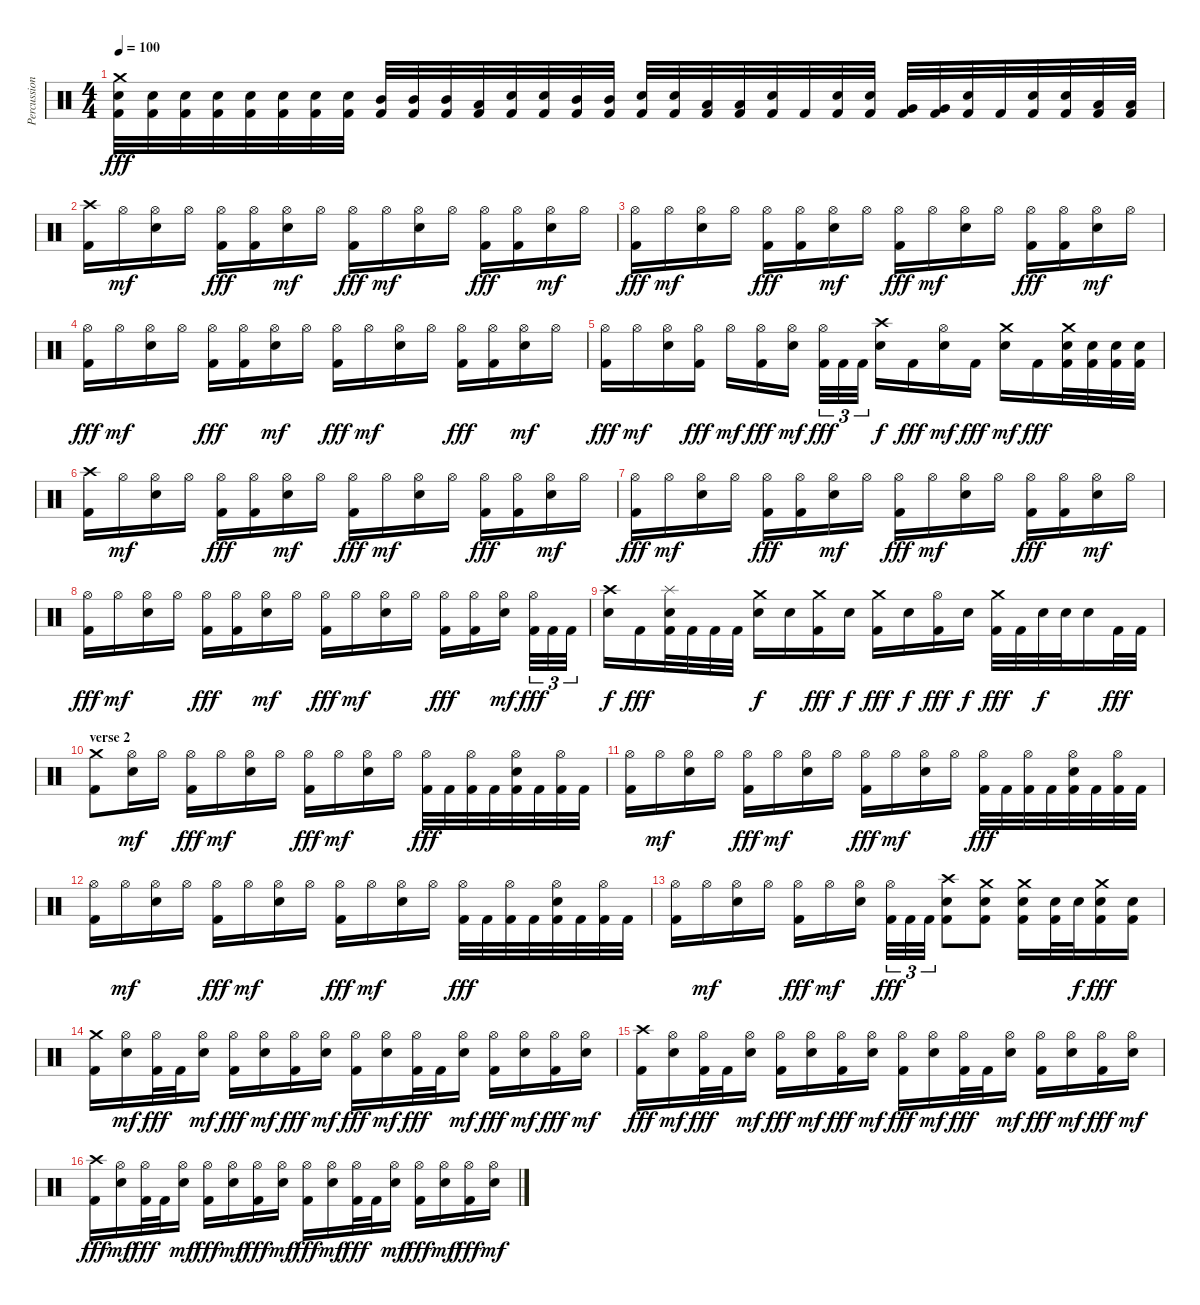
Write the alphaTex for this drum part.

\track ("Percussion" "Percussion") {instrument percussion}
\staff {score}
\articulation defaults
\ts (4 4)
\tempo 100
\clef neutral
\ks c
("Crash medium (hit)" "Snare (hit) 2" "Kick (hit) 2").32{dy fff} ("Snare (hit) 2" "Kick (hit) 2").32 ("Snare (hit) 2" "Kick (hit) 2").32 ("Snare (hit) 2" "Kick (hit) 2").32 ("Snare (hit) 2" "Kick (hit) 2").32 ("Snare (hit) 2" "Kick (hit) 2").32 ("Snare (hit) 2" "Kick (hit) 2").32 ("Snare (hit) 2" "Kick (hit) 2").32 ("Mid Tom (hit)" "Kick (hit) 2").32 ("Mid Tom (hit)" "Kick (hit) 2").32 ("Mid Tom (hit)" "Kick (hit) 2").32 ("Low Tom (hit)" "Kick (hit) 2").32 ("Snare (hit) 2" "Kick (hit) 2").32 ("Snare (hit) 2" "Kick (hit) 2").32 ("Mid Tom (hit)" "Kick (hit) 2").32 ("Mid Tom (hit)" "Kick (hit) 2").32 ("Snare (hit) 2" "Kick (hit) 2").32 ("Snare (hit) 2" "Kick (hit) 2").32 ("Low Tom (hit)" "Kick (hit) 2").32 ("Low Tom (hit)" "Kick (hit) 2").32 ("Snare (hit) 2" "Kick (hit) 2").32 "Kick (hit) 2".32 ("Snare (hit) 2" "Kick (hit) 2").32 ("Snare (hit) 2" "Kick (hit) 2").32 ("Very Low Tom (hit)" "Kick (hit) 2").32 ("Very Low Tom (hit)" "Kick (hit) 2").32 ("Snare (hit) 2" "Kick (hit) 2").32 "Kick (hit) 2".32 ("Snare (hit) 2" "Kick (hit) 2").32 ("Snare (hit) 2" "Kick (hit) 2").32 ("Low Floor Tom (hit)" "Kick (hit) 2").32 ("Low Floor Tom (hit)" "Kick (hit) 2").32 |
\section ("" "")
("Crash high (hit)" "Kick (hit) 2").16 "Hi-Hat (open)".16{dy mf} ("Hi-Hat (open)" "Snare (hit) 2").16 "Hi-Hat (open)".16 ("Hi-Hat (open)" "Kick (hit) 2").16{dy fff} ("Hi-Hat (open)" "Kick (hit) 2").16 ("Hi-Hat (open)" "Snare (hit) 2").16{dy mf} "Hi-Hat (open)".16 ("Hi-Hat (open)" "Kick (hit) 2").16{dy fff} "Hi-Hat (open)".16{dy mf} ("Hi-Hat (open)" "Snare (hit) 2").16 "Hi-Hat (open)".16 ("Hi-Hat (open)" "Kick (hit) 2").16{dy fff} ("Hi-Hat (open)" "Kick (hit) 2").16 ("Hi-Hat (open)" "Snare (hit) 2").16{dy mf} "Hi-Hat (open)".16 |
("Hi-Hat (open)" "Kick (hit) 2").16{dy fff} "Hi-Hat (open)".16{dy mf} ("Hi-Hat (open)" "Snare (hit) 2").16 "Hi-Hat (open)".16 ("Hi-Hat (open)" "Kick (hit) 2").16{dy fff} ("Hi-Hat (open)" "Kick (hit) 2").16 ("Hi-Hat (open)" "Snare (hit) 2").16{dy mf} "Hi-Hat (open)".16 ("Hi-Hat (open)" "Kick (hit) 2").16{dy fff} "Hi-Hat (open)".16{dy mf} ("Hi-Hat (open)" "Snare (hit) 2").16 "Hi-Hat (open)".16 ("Hi-Hat (open)" "Kick (hit) 2").16{dy fff} ("Hi-Hat (open)" "Kick (hit) 2").16 ("Hi-Hat (open)" "Snare (hit) 2").16{dy mf} "Hi-Hat (open)".16 |
("Hi-Hat (open)" "Kick (hit) 2").16{dy fff} "Hi-Hat (open)".16{dy mf} ("Hi-Hat (open)" "Snare (hit) 2").16 "Hi-Hat (open)".16 ("Hi-Hat (open)" "Kick (hit) 2").16{dy fff} ("Hi-Hat (open)" "Kick (hit) 2").16 ("Hi-Hat (open)" "Snare (hit) 2").16{dy mf} "Hi-Hat (open)".16 ("Hi-Hat (open)" "Kick (hit) 2").16{dy fff} "Hi-Hat (open)".16{dy mf} ("Hi-Hat (open)" "Snare (hit) 2").16 "Hi-Hat (open)".16 ("Hi-Hat (open)" "Kick (hit) 2").16{dy fff} ("Hi-Hat (open)" "Kick (hit) 2").16 ("Hi-Hat (open)" "Snare (hit) 2").16{dy mf} "Hi-Hat (open)".16 |
("Hi-Hat (open)" "Kick (hit) 2").16{dy fff} "Hi-Hat (open)".16{dy mf} ("Hi-Hat (open)" "Snare (hit) 2").16 ("Hi-Hat (open)" "Kick (hit) 2").16{dy fff} "Hi-Hat (open)".16{dy mf} ("Hi-Hat (open)" "Kick (hit) 2").16{dy fff} ("Hi-Hat (open)" "Snare (hit) 2").16{dy mf} ("Hi-Hat (open)" "Kick (hit) 2").32{tu (3 2) dy fff} "Kick (hit) 2".32{tu (3 2)} "Kick (hit) 2".32{tu (3 2)} ("Crash high (hit)" "Snare (hit) 2").16{dy f} "Kick (hit) 2".16{dy fff} ("Hi-Hat (open)" "Snare (hit) 2").16{dy mf} "Kick (hit) 2".16{dy fff} ("Crash medium (hit)" "Snare (hit) 2").16{dy mf} "Kick (hit) 2".16{dy fff} ("Crash medium (hit)" "Snare (hit) 2" "Kick (hit) 2").32 ("Snare (hit) 2" "Kick (hit) 2").32 ("Snare (hit) 2" "Kick (hit) 2").32 ("Snare (hit) 2" "Kick (hit) 2").32 |
("Crash high (hit)" "Kick (hit) 2").16 "Hi-Hat (open)".16{dy mf} ("Hi-Hat (open)" "Snare (hit) 2").16 "Hi-Hat (open)".16 ("Hi-Hat (open)" "Kick (hit) 2").16{dy fff} ("Hi-Hat (open)" "Kick (hit) 2").16 ("Hi-Hat (open)" "Snare (hit) 2").16{dy mf} "Hi-Hat (open)".16 ("Hi-Hat (open)" "Kick (hit) 2").16{dy fff} "Hi-Hat (open)".16{dy mf} ("Hi-Hat (open)" "Snare (hit) 2").16 "Hi-Hat (open)".16 ("Hi-Hat (open)" "Kick (hit) 2").16{dy fff} ("Hi-Hat (open)" "Kick (hit) 2").16 ("Hi-Hat (open)" "Snare (hit) 2").16{dy mf} "Hi-Hat (open)".16 |
("Hi-Hat (open)" "Kick (hit) 2").16{dy fff} "Hi-Hat (open)".16{dy mf} ("Hi-Hat (open)" "Snare (hit) 2").16 "Hi-Hat (open)".16 ("Hi-Hat (open)" "Kick (hit) 2").16{dy fff} ("Hi-Hat (open)" "Kick (hit) 2").16 ("Hi-Hat (open)" "Snare (hit) 2").16{dy mf} "Hi-Hat (open)".16 ("Hi-Hat (open)" "Kick (hit) 2").16{dy fff} "Hi-Hat (open)".16{dy mf} ("Hi-Hat (open)" "Snare (hit) 2").16 "Hi-Hat (open)".16 ("Hi-Hat (open)" "Kick (hit) 2").16{dy fff} ("Hi-Hat (open)" "Kick (hit) 2").16 ("Hi-Hat (open)" "Snare (hit) 2").16{dy mf} "Hi-Hat (open)".16 |
("Hi-Hat (open)" "Kick (hit) 2").16{dy fff} "Hi-Hat (open)".16{dy mf} ("Hi-Hat (open)" "Snare (hit) 2").16 "Hi-Hat (open)".16 ("Hi-Hat (open)" "Kick (hit) 2").16{dy fff} ("Hi-Hat (open)" "Kick (hit) 2").16 ("Hi-Hat (open)" "Snare (hit) 2").16{dy mf} "Hi-Hat (open)".16 ("Hi-Hat (open)" "Kick (hit) 2").16{dy fff} "Hi-Hat (open)".16{dy mf} ("Hi-Hat (open)" "Snare (hit) 2").16 "Hi-Hat (open)".16 ("Hi-Hat (open)" "Kick (hit) 2").16{dy fff} ("Hi-Hat (open)" "Kick (hit) 2").16 ("Hi-Hat (open)" "Snare (hit) 2").16{dy mf} ("Hi-Hat (open)" "Kick (hit) 2").32{tu (3 2) dy fff} "Kick (hit) 2".32{tu (3 2)} "Kick (hit) 2".32{tu (3 2)} |
("Crash high (hit)" "Snare (hit) 2").16{dy f} "Kick (hit) 2".16{dy fff} ("Splash (hit)" "Snare (hit) 2" "Kick (hit) 2").32 "Kick (hit) 2".32 "Kick (hit) 2".32 "Kick (hit) 2".32 ("Crash medium (hit)" "Snare (hit) 2").16{dy f} "Snare (hit) 2".16 ("Crash medium (hit)" "Kick (hit) 2").16{dy fff} "Snare (hit) 2".16{dy f} ("Crash medium (hit)" "Kick (hit) 2").16{dy fff} "Snare (hit) 2".16{dy f} ("Hi-Hat (open)" "Kick (hit) 2").16{dy fff} "Snare (hit) 2".16{dy f} ("Crash medium (hit)" "Kick (hit) 2").32{dy fff} "Kick (hit) 2".32 "Snare (hit) 2".32{dy f} "Snare (hit) 2".32 "Snare (hit) 2".16 "Kick (hit) 2".32{dy fff} "Kick (hit) 2".32 |
\section ("" "verse 2")
("Crash medium (hit)" "Kick (hit) 2").8 ("Hi-Hat (open)" "Snare (hit) 2").16{dy mf} "Hi-Hat (open)".16 ("Hi-Hat (open)" "Kick (hit) 2").16{dy fff} "Hi-Hat (open)".16{dy mf} ("Hi-Hat (open)" "Snare (hit) 2").16 "Hi-Hat (open)".16 ("Hi-Hat (open)" "Kick (hit) 2").16{dy fff} "Hi-Hat (open)".16{dy mf} ("Hi-Hat (open)" "Snare (hit) 2").16 "Hi-Hat (open)".16 ("Hi-Hat (open)" "Kick (hit) 2").32{dy fff} "Kick (hit) 2".32 ("Hi-Hat (open)" "Kick (hit) 2").32 "Kick (hit) 2".32 ("Hi-Hat (open)" "Snare (hit) 2" "Kick (hit) 2").32 "Kick (hit) 2".32 ("Hi-Hat (open)" "Kick (hit) 2").32 "Kick (hit) 2".32 |
("Hi-Hat (open)" "Kick (hit) 2").16 "Hi-Hat (open)".16{dy mf} ("Hi-Hat (open)" "Snare (hit) 2").16 "Hi-Hat (open)".16 ("Hi-Hat (open)" "Kick (hit) 2").16{dy fff} "Hi-Hat (open)".16{dy mf} ("Hi-Hat (open)" "Snare (hit) 2").16 "Hi-Hat (open)".16 ("Hi-Hat (open)" "Kick (hit) 2").16{dy fff} "Hi-Hat (open)".16{dy mf} ("Hi-Hat (open)" "Snare (hit) 2").16 "Hi-Hat (open)".16 ("Hi-Hat (open)" "Kick (hit) 2").32{dy fff} "Kick (hit) 2".32 ("Hi-Hat (open)" "Kick (hit) 2").32 "Kick (hit) 2".32 ("Hi-Hat (open)" "Snare (hit) 2" "Kick (hit) 2").32 "Kick (hit) 2".32 ("Hi-Hat (open)" "Kick (hit) 2").32 "Kick (hit) 2".32 |
("Hi-Hat (open)" "Kick (hit) 2").16 "Hi-Hat (open)".16{dy mf} ("Hi-Hat (open)" "Snare (hit) 2").16 "Hi-Hat (open)".16 ("Hi-Hat (open)" "Kick (hit) 2").16{dy fff} "Hi-Hat (open)".16{dy mf} ("Hi-Hat (open)" "Snare (hit) 2").16 "Hi-Hat (open)".16 ("Hi-Hat (open)" "Kick (hit) 2").16{dy fff} "Hi-Hat (open)".16{dy mf} ("Hi-Hat (open)" "Snare (hit) 2").16 "Hi-Hat (open)".16 ("Hi-Hat (open)" "Kick (hit) 2").32{dy fff} "Kick (hit) 2".32 ("Hi-Hat (open)" "Kick (hit) 2").32 "Kick (hit) 2".32 ("Hi-Hat (open)" "Snare (hit) 2" "Kick (hit) 2").32 "Kick (hit) 2".32 ("Hi-Hat (open)" "Kick (hit) 2").32 "Kick (hit) 2".32 |
("Hi-Hat (open)" "Kick (hit) 2").16 "Hi-Hat (open)".16{dy mf} ("Hi-Hat (open)" "Snare (hit) 2").16 "Hi-Hat (open)".16 ("Hi-Hat (open)" "Kick (hit) 2").16{dy fff} "Hi-Hat (open)".16{dy mf} ("Hi-Hat (open)" "Snare (hit) 2").16 ("Hi-Hat (open)" "Kick (hit) 2").32{tu (3 2) dy fff} "Kick (hit) 2".32{tu (3 2)} "Kick (hit) 2".32{tu (3 2)} ("Crash high (hit)" "Snare (hit) 2" "Kick (hit) 2").8 ("Crash medium (hit)" "Snare (hit) 2" "Kick (hit) 2").8 ("Crash medium (hit)" "Snare (hit) 2" "Kick (hit) 2").16 ("Snare (hit) 2" "Kick (hit) 2").32 "Snare (hit) 2".32{dy f} ("Crash medium (hit)" "Snare (hit) 2" "Kick (hit) 2").16{dy fff} ("Snare (hit) 2" "Kick (hit) 2").16 |
\section ("" "")
("Crash medium (hit)" "Kick (hit) 2").16 ("Hi-Hat (open)" "Snare (hit) 2").16{dy mf} ("Hi-Hat (open)" "Kick (hit) 2").32{dy fff} "Kick (hit) 2".32 ("Hi-Hat (open)" "Snare (hit) 2").16{dy mf} ("Hi-Hat (open)" "Kick (hit) 2").16{dy fff} ("Hi-Hat (open)" "Snare (hit) 2").16{dy mf} ("Hi-Hat (open)" "Kick (hit) 2").16{dy fff} ("Hi-Hat (open)" "Snare (hit) 2").16{dy mf} ("Hi-Hat (open)" "Kick (hit) 2").16{dy fff} ("Hi-Hat (open)" "Snare (hit) 2").16{dy mf} ("Hi-Hat (open)" "Kick (hit) 2").32{dy fff} "Kick (hit) 2".32 ("Hi-Hat (open)" "Snare (hit) 2").16{dy mf} ("Hi-Hat (open)" "Kick (hit) 2").16{dy fff} ("Hi-Hat (open)" "Snare (hit) 2").16{dy mf} ("Hi-Hat (open)" "Kick (hit) 2").16{dy fff} ("Hi-Hat (open)" "Snare (hit) 2").16{dy mf} |
("Crash high (hit)" "Kick (hit) 2").16{dy fff} ("Hi-Hat (open)" "Snare (hit) 2").16{dy mf} ("Hi-Hat (open)" "Kick (hit) 2").32{dy fff} "Kick (hit) 2".32 ("Hi-Hat (open)" "Snare (hit) 2").16{dy mf} ("Hi-Hat (open)" "Kick (hit) 2").16{dy fff} ("Hi-Hat (open)" "Snare (hit) 2").16{dy mf} ("Hi-Hat (open)" "Kick (hit) 2").16{dy fff} ("Hi-Hat (open)" "Snare (hit) 2").16{dy mf} ("Hi-Hat (open)" "Kick (hit) 2").16{dy fff} ("Hi-Hat (open)" "Snare (hit) 2").16{dy mf} ("Hi-Hat (open)" "Kick (hit) 2").32{dy fff} "Kick (hit) 2".32 ("Hi-Hat (open)" "Snare (hit) 2").16{dy mf} ("Hi-Hat (open)" "Kick (hit) 2").16{dy fff} ("Hi-Hat (open)" "Snare (hit) 2").16{dy mf} ("Hi-Hat (open)" "Kick (hit) 2").16{dy fff} ("Hi-Hat (open)" "Snare (hit) 2").16{dy mf} |
("Crash high (hit)" "Kick (hit) 2").16{dy fff} ("Hi-Hat (open)" "Snare (hit) 2").16{dy mf} ("Hi-Hat (open)" "Kick (hit) 2").32{dy fff} "Kick (hit) 2".32 ("Hi-Hat (open)" "Snare (hit) 2").16{dy mf} ("Hi-Hat (open)" "Kick (hit) 2").16{dy fff} ("Hi-Hat (open)" "Snare (hit) 2").16{dy mf} ("Hi-Hat (open)" "Kick (hit) 2").16{dy fff} ("Hi-Hat (open)" "Snare (hit) 2").16{dy mf} ("Hi-Hat (open)" "Kick (hit) 2").16{dy fff} ("Hi-Hat (open)" "Snare (hit) 2").16{dy mf} ("Hi-Hat (open)" "Kick (hit) 2").32{dy fff} "Kick (hit) 2".32 ("Hi-Hat (open)" "Snare (hit) 2").16{dy mf} ("Hi-Hat (open)" "Kick (hit) 2").16{dy fff} ("Hi-Hat (open)" "Snare (hit) 2").16{dy mf} ("Hi-Hat (open)" "Kick (hit) 2").16{dy fff} ("Hi-Hat (open)" "Snare (hit) 2").16{dy mf}
